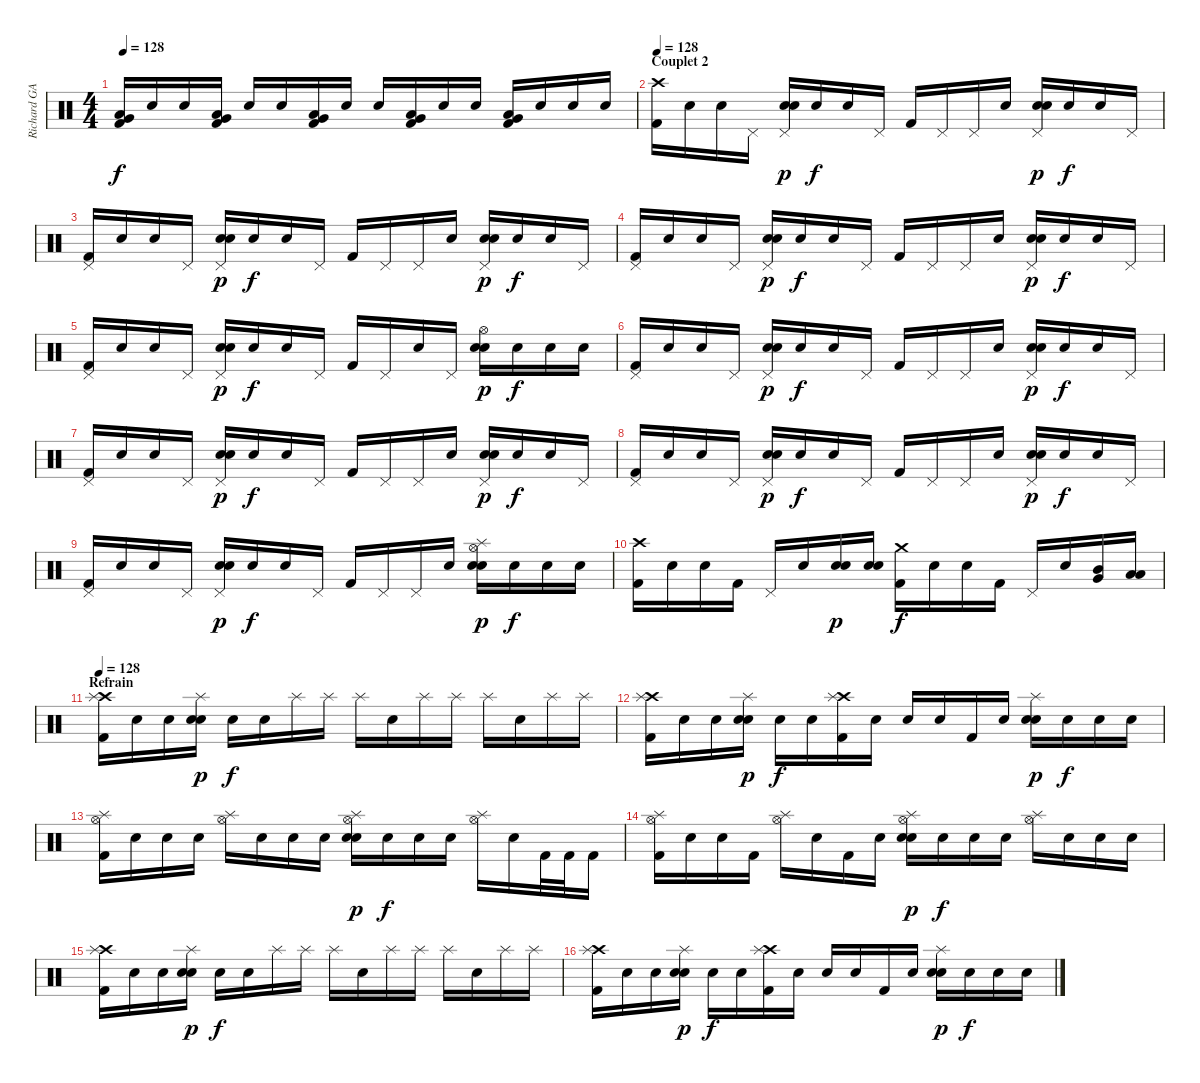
\track ("Richard GAMBA - Batterie" "Richard GA") {instrument percussion}
\staff {score}
\articulation defaults
\ts (4 4)
\tempo 128
\clef neutral
\ks c
("Low Tom (hit)" "Very Low Tom (hit)" "Kick (hit) 2").16{dy f} "Snare (hit)".16 "Snare (hit)".16 ("Low Tom (hit)" "Very Low Tom (hit)" "Kick (hit) 2").16 "Snare (hit)".16 "Snare (hit)".16 ("Low Tom (hit)" "Very Low Tom (hit)" "Kick (hit) 2").16 "Snare (hit)".16 "Snare (hit)".16 ("Low Tom (hit)" "Very Low Tom (hit)" "Kick (hit) 2").16 "Snare (hit)".16 "Snare (hit)".16 ("Low Tom (hit)" "Very Low Tom (hit)" "Kick (hit) 2").16 "Snare (hit)".16 "Snare (hit)".16 "Snare (hit)".16 |
\section ("" "Couplet 2")
\tempo 128
("Crash high (hit)" "Kick (hit) 2").16{volume 16 balance 8} "Snare (hit)".16 "Snare (hit)".16 "Pedal Hi-Hat (hit)".16 ("Pedal Hi-Hat (hit)" "Electric Snare (hit)" "Snare (hit) 2").16{dy p} "Snare (hit)".16{dy f} "Snare (hit)".16 "Pedal Hi-Hat (hit)".16 "Kick (hit) 2".16 "Pedal Hi-Hat (hit)".16 "Pedal Hi-Hat (hit)".16 "Snare (hit)".16 ("Pedal Hi-Hat (hit)" "Electric Snare (hit)" "Snare (hit) 2").16{dy p} "Snare (hit)".16{dy f} "Snare (hit)".16 "Pedal Hi-Hat (hit)".16 |
("Pedal Hi-Hat (hit)" "Kick (hit) 2").16 "Snare (hit)".16 "Snare (hit)".16 "Pedal Hi-Hat (hit)".16 ("Pedal Hi-Hat (hit)" "Electric Snare (hit)" "Snare (hit) 2").16{dy p} "Snare (hit)".16{dy f} "Snare (hit)".16 "Pedal Hi-Hat (hit)".16 "Kick (hit) 2".16 "Pedal Hi-Hat (hit)".16 "Pedal Hi-Hat (hit)".16 "Snare (hit)".16 ("Pedal Hi-Hat (hit)" "Electric Snare (hit)" "Snare (hit) 2").16{dy p} "Snare (hit)".16{dy f} "Snare (hit)".16 "Pedal Hi-Hat (hit)".16 |
("Pedal Hi-Hat (hit)" "Kick (hit) 2").16 "Snare (hit)".16 "Snare (hit)".16 "Pedal Hi-Hat (hit)".16 ("Pedal Hi-Hat (hit)" "Electric Snare (hit)" "Snare (hit) 2").16{dy p} "Snare (hit)".16{dy f} "Snare (hit)".16 "Pedal Hi-Hat (hit)".16 "Kick (hit) 2".16 "Pedal Hi-Hat (hit)".16 "Pedal Hi-Hat (hit)".16 "Snare (hit)".16 ("Pedal Hi-Hat (hit)" "Electric Snare (hit)" "Snare (hit) 2").16{dy p} "Snare (hit)".16{dy f} "Snare (hit)".16 "Pedal Hi-Hat (hit)".16 |
("Pedal Hi-Hat (hit)" "Kick (hit) 2").16 "Snare (hit)".16 "Snare (hit)".16 "Pedal Hi-Hat (hit)".16 ("Pedal Hi-Hat (hit)" "Electric Snare (hit)" "Snare (hit) 2").16{dy p} "Snare (hit)".16{dy f} "Snare (hit)".16 "Pedal Hi-Hat (hit)".16 "Kick (hit) 2".16 "Pedal Hi-Hat (hit)".16 "Snare (hit)".16 "Pedal Hi-Hat (hit)".16 ("Hi-Hat (open)" "Electric Snare (hit)" "Snare (hit) 2").16{dy p} "Snare (hit)".16{dy f} "Snare (hit)".16 "Snare (hit)".16 |
("Pedal Hi-Hat (hit)" "Kick (hit) 2").16 "Snare (hit)".16 "Snare (hit)".16 "Pedal Hi-Hat (hit)".16 ("Pedal Hi-Hat (hit)" "Electric Snare (hit)" "Snare (hit) 2").16{dy p} "Snare (hit)".16{dy f} "Snare (hit)".16 "Pedal Hi-Hat (hit)".16 "Kick (hit) 2".16 "Pedal Hi-Hat (hit)".16 "Pedal Hi-Hat (hit)".16 "Snare (hit)".16 ("Pedal Hi-Hat (hit)" "Electric Snare (hit)" "Snare (hit) 2").16{dy p} "Snare (hit)".16{dy f} "Snare (hit)".16 "Pedal Hi-Hat (hit)".16 |
("Pedal Hi-Hat (hit)" "Kick (hit) 2").16 "Snare (hit)".16 "Snare (hit)".16 "Pedal Hi-Hat (hit)".16 ("Pedal Hi-Hat (hit)" "Electric Snare (hit)" "Snare (hit) 2").16{dy p} "Snare (hit)".16{dy f} "Snare (hit)".16 "Pedal Hi-Hat (hit)".16 "Kick (hit) 2".16 "Pedal Hi-Hat (hit)".16 "Pedal Hi-Hat (hit)".16 "Snare (hit)".16 ("Pedal Hi-Hat (hit)" "Electric Snare (hit)" "Snare (hit) 2").16{dy p} "Snare (hit)".16{dy f} "Snare (hit)".16 "Pedal Hi-Hat (hit)".16 |
("Pedal Hi-Hat (hit)" "Kick (hit) 2").16 "Snare (hit)".16 "Snare (hit)".16 "Pedal Hi-Hat (hit)".16 ("Pedal Hi-Hat (hit)" "Electric Snare (hit)" "Snare (hit) 2").16{dy p} "Snare (hit)".16{dy f} "Snare (hit)".16 "Pedal Hi-Hat (hit)".16 "Kick (hit) 2".16 "Pedal Hi-Hat (hit)".16 "Pedal Hi-Hat (hit)".16 "Snare (hit)".16 ("Pedal Hi-Hat (hit)" "Electric Snare (hit)" "Snare (hit) 2").16{dy p} "Snare (hit)".16{dy f} "Snare (hit)".16 "Pedal Hi-Hat (hit)".16 |
("Pedal Hi-Hat (hit)" "Kick (hit) 2").16 "Snare (hit)".16 "Snare (hit)".16 "Pedal Hi-Hat (hit)".16 ("Pedal Hi-Hat (hit)" "Electric Snare (hit)" "Snare (hit) 2").16{dy p} "Snare (hit)".16{dy f} "Snare (hit)".16 "Pedal Hi-Hat (hit)".16 "Kick (hit) 2".16 "Pedal Hi-Hat (hit)".16 "Pedal Hi-Hat (hit)".16 "Snare (hit)".16 ("Hi-Hat (open)" "Splash (hit)" "Electric Snare (hit)" "Snare (hit) 2").16{dy p} "Snare (hit)".16{dy f} "Snare (hit)".16 "Snare (hit)".16 |
("Crash high (hit)" "Kick (hit) 2").16 "Snare (hit)".16 "Snare (hit)".16 "Kick (hit) 2".16 "Pedal Hi-Hat (hit)".16 "Snare (hit)".16 ("Electric Snare (hit)" "Snare (hit) 2").16{dy p} ("Electric Snare (hit)" "Snare (hit) 2").16 ("Crash medium (hit)" "Kick (hit) 2").16{dy f} "Snare (hit)".16 "Snare (hit)".16 "Kick (hit) 2".16 "Pedal Hi-Hat (hit)".16 "Snare (hit)".16 ("Mid Tom (hit)" "Very Low Tom (hit)").16 ("Low Tom (hit)" "Low Floor Tom (hit)").16 |
\section ("" "Refrain")
\tempo 128
("Crash high (hit)" "Splash (hit)" "Kick (hit) 2").16{volume 16 balance 8} "Snare (hit)".16 "Snare (hit)".16 ("Splash (hit)" "Electric Snare (hit)" "Snare (hit) 2").16{dy p} "Snare (hit)".16{dy f} "Snare (hit)".16 "Splash (hit)".16 "Splash (hit)".16 "Splash (hit)".16 "Snare (hit)".16 "Splash (hit)".16 "Splash (hit)".16 "Splash (hit)".16 "Snare (hit)".16 "Splash (hit)".16 "Splash (hit)".16 |
("Crash high (hit)" "Splash (hit)" "Kick (hit) 2").16 "Snare (hit)".16 "Snare (hit)".16 ("Splash (hit)" "Electric Snare (hit)" "Snare (hit) 2").16{dy p} "Snare (hit)".16{dy f} "Snare (hit)".16 ("Crash high (hit)" "Splash (hit)" "Kick (hit) 2").16 "Snare (hit)".16 "Snare (hit)".16 "Snare (hit)".16 "Kick (hit) 2".16 "Snare (hit)".16 ("Splash (hit)" "Electric Snare (hit)" "Snare (hit) 2").16{dy p} "Snare (hit)".16{dy f} "Snare (hit)".16 "Snare (hit)".16 |
("Hi-Hat (open)" "Splash (hit)" "Kick (hit) 2").16 "Snare (hit)".16 "Snare (hit)".16 "Snare (hit)".16 ("Hi-Hat (open)" "Splash (hit)").16 "Snare (hit)".16 "Snare (hit)".16 "Snare (hit)".16 ("Hi-Hat (open)" "Splash (hit)" "Electric Snare (hit)" "Snare (hit) 2").16{dy p} "Snare (hit)".16{dy f} "Snare (hit)".16 "Snare (hit)".16 ("Hi-Hat (open)" "Splash (hit)").16 "Snare (hit)".16 "Kick (hit) 2".32 "Kick (hit) 2".32 "Kick (hit) 2".16 |
("Hi-Hat (open)" "Splash (hit)" "Kick (hit) 2").16 "Snare (hit)".16 "Snare (hit)".16 "Kick (hit) 2".16 ("Hi-Hat (open)" "Splash (hit)").16 "Snare (hit)".16 "Kick (hit) 2".16 "Snare (hit)".16 ("Hi-Hat (open)" "Splash (hit)" "Electric Snare (hit)" "Snare (hit) 2").16{dy p} "Snare (hit)".16{dy f} "Snare (hit)".16 "Snare (hit)".16 ("Hi-Hat (open)" "Splash (hit)").16 "Snare (hit)".16 "Snare (hit)".16 "Snare (hit)".16 |
("Crash high (hit)" "Splash (hit)" "Kick (hit) 2").16 "Snare (hit)".16 "Snare (hit)".16 ("Splash (hit)" "Electric Snare (hit)" "Snare (hit) 2").16{dy p} "Snare (hit)".16{dy f} "Snare (hit)".16 "Splash (hit)".16 "Splash (hit)".16 "Splash (hit)".16 "Snare (hit)".16 "Splash (hit)".16 "Splash (hit)".16 "Splash (hit)".16 "Snare (hit)".16 "Splash (hit)".16 "Splash (hit)".16 |
("Crash high (hit)" "Splash (hit)" "Kick (hit) 2").16 "Snare (hit)".16 "Snare (hit)".16 ("Splash (hit)" "Electric Snare (hit)" "Snare (hit) 2").16{dy p} "Snare (hit)".16{dy f} "Snare (hit)".16 ("Crash high (hit)" "Splash (hit)" "Kick (hit) 2").16 "Snare (hit)".16 "Snare (hit)".16 "Snare (hit)".16 "Kick (hit) 2".16 "Snare (hit)".16 ("Splash (hit)" "Electric Snare (hit)" "Snare (hit) 2").16{dy p} "Snare (hit)".16{dy f} "Snare (hit)".16 "Snare (hit)".16
